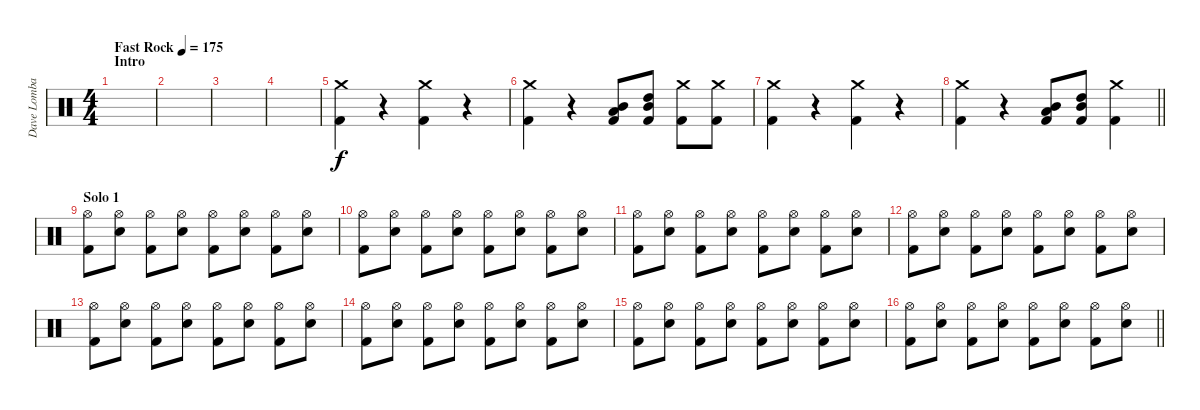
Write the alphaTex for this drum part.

\track ("Dave Lombardo" "Dave Lomba") {instrument percussion}
\staff {score}
\articulation defaults
\ts (4 4)
\section ("" "Intro")
\tempo (175 "Fast Rock")
\clef neutral
\ks c
|
|
|
|
("Crash medium (hit)" "Kick (hit) 2").4 r.4 ("Crash medium (hit)" "Kick (hit) 2").4 r.4 |
("Crash medium (hit)" "Kick (hit) 2").4 r.4 ("Low Tom (hit)" "Mid Tom (hit)" "Kick (hit) 2").8 ("High Tom (hit)" "Mid Tom (hit)" "Kick (hit) 2").8 ("Crash medium (hit)" "Kick (hit) 2").8 ("Crash medium (hit)" "Kick (hit) 2").8 |
("Crash medium (hit)" "Kick (hit) 2").4 r.4 ("Crash medium (hit)" "Kick (hit) 2").4 r.4 |
\barLineRight lightlight
("Crash medium (hit)" "Kick (hit) 2").4 r.4 ("Low Tom (hit)" "Mid Tom (hit)" "Kick (hit) 2").8 ("High Tom (hit)" "Mid Tom (hit)" "Kick (hit) 2").8 ("Crash medium (hit)" "Kick (hit) 2").4 |
\section ("" "Solo 1")
("Hi-Hat (open)" "Kick (hit) 2").8 ("Hi-Hat (open)" "Snare (hit) 2").8 ("Hi-Hat (open)" "Kick (hit) 2").8 ("Hi-Hat (open)" "Snare (hit) 2").8 ("Hi-Hat (open)" "Kick (hit) 2").8 ("Hi-Hat (open)" "Snare (hit) 2").8 ("Hi-Hat (open)" "Kick (hit) 2").8 ("Hi-Hat (open)" "Snare (hit) 2").8 |
("Hi-Hat (open)" "Kick (hit) 2").8 ("Hi-Hat (open)" "Snare (hit) 2").8 ("Hi-Hat (open)" "Kick (hit) 2").8 ("Hi-Hat (open)" "Snare (hit) 2").8 ("Hi-Hat (open)" "Kick (hit) 2").8 ("Hi-Hat (open)" "Snare (hit) 2").8 ("Hi-Hat (open)" "Kick (hit) 2").8 ("Hi-Hat (open)" "Snare (hit) 2").8 |
("Hi-Hat (open)" "Kick (hit) 2").8 ("Hi-Hat (open)" "Snare (hit) 2").8 ("Hi-Hat (open)" "Kick (hit) 2").8 ("Hi-Hat (open)" "Snare (hit) 2").8 ("Hi-Hat (open)" "Kick (hit) 2").8 ("Hi-Hat (open)" "Snare (hit) 2").8 ("Hi-Hat (open)" "Kick (hit) 2").8 ("Hi-Hat (open)" "Snare (hit) 2").8 |
("Hi-Hat (open)" "Kick (hit) 2").8 ("Hi-Hat (open)" "Snare (hit) 2").8 ("Hi-Hat (open)" "Kick (hit) 2").8 ("Hi-Hat (open)" "Snare (hit) 2").8 ("Hi-Hat (open)" "Kick (hit) 2").8 ("Hi-Hat (open)" "Snare (hit) 2").8 ("Hi-Hat (open)" "Kick (hit) 2").8 ("Hi-Hat (open)" "Snare (hit) 2").8 |
("Hi-Hat (open)" "Kick (hit) 2").8 ("Hi-Hat (open)" "Snare (hit) 2").8 ("Hi-Hat (open)" "Kick (hit) 2").8 ("Hi-Hat (open)" "Snare (hit) 2").8 ("Hi-Hat (open)" "Kick (hit) 2").8 ("Hi-Hat (open)" "Snare (hit) 2").8 ("Hi-Hat (open)" "Kick (hit) 2").8 ("Hi-Hat (open)" "Snare (hit) 2").8 |
("Hi-Hat (open)" "Kick (hit) 2").8 ("Hi-Hat (open)" "Snare (hit) 2").8 ("Hi-Hat (open)" "Kick (hit) 2").8 ("Hi-Hat (open)" "Snare (hit) 2").8 ("Hi-Hat (open)" "Kick (hit) 2").8 ("Hi-Hat (open)" "Snare (hit) 2").8 ("Hi-Hat (open)" "Kick (hit) 2").8 ("Hi-Hat (open)" "Snare (hit) 2").8 |
("Hi-Hat (open)" "Kick (hit) 2").8 ("Hi-Hat (open)" "Snare (hit) 2").8 ("Hi-Hat (open)" "Kick (hit) 2").8 ("Hi-Hat (open)" "Snare (hit) 2").8 ("Hi-Hat (open)" "Kick (hit) 2").8 ("Hi-Hat (open)" "Snare (hit) 2").8 ("Hi-Hat (open)" "Kick (hit) 2").8 ("Hi-Hat (open)" "Snare (hit) 2").8 |
\barLineRight lightlight
("Hi-Hat (open)" "Kick (hit) 2").8 ("Hi-Hat (open)" "Snare (hit) 2").8 ("Hi-Hat (open)" "Kick (hit) 2").8 ("Hi-Hat (open)" "Snare (hit) 2").8 ("Hi-Hat (open)" "Kick (hit) 2").8 ("Hi-Hat (open)" "Snare (hit) 2").8 ("Hi-Hat (open)" "Kick (hit) 2").8 ("Hi-Hat (open)" "Snare (hit) 2").8
